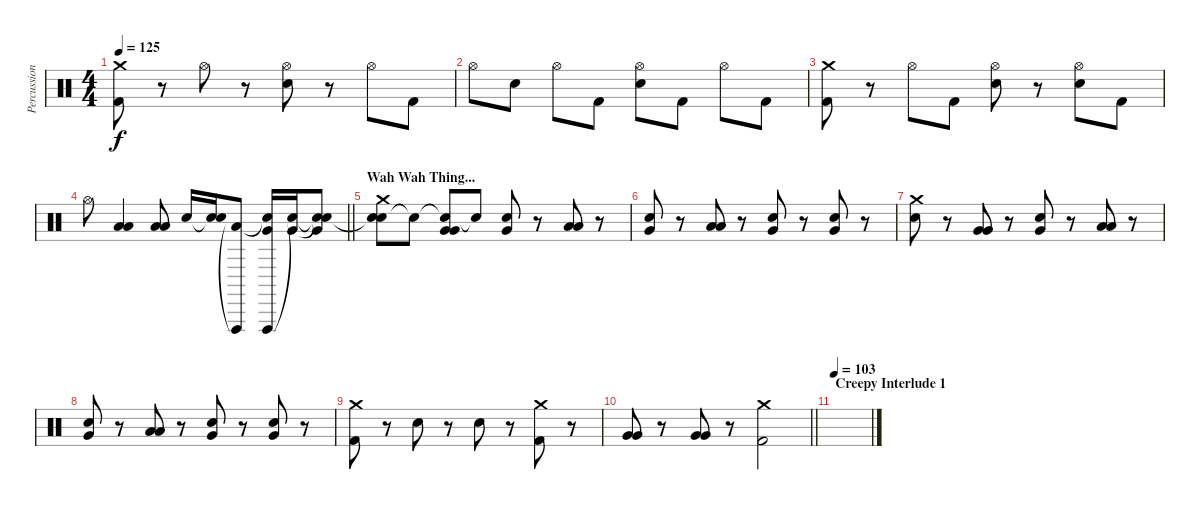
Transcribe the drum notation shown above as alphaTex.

\track ("Percussion" "Percussion") {instrument percussion}
\staff {score}
\articulation defaults
\ts (4 4)
\tempo 125
\clef neutral
\ks c
("Crash medium (hit)" "Kick (hit) 2").8{dy f} r.8 "Hi-Hat (open)".8 r.8 ("Hi-Hat (open)" "Electric Snare (hit)").8 r.8 "Hi-Hat (open)".8 "Kick (hit) 2".8 |
"Hi-Hat (open)".8 "Electric Snare (hit)".8 "Hi-Hat (open)".8 "Kick (hit) 2".8 ("Hi-Hat (open)" "Electric Snare (hit)").8 "Kick (hit) 2".8 "Hi-Hat (open)".8 "Kick (hit) 2".8 |
("Crash medium (hit)" "Kick (hit) 2").8 r.8 "Hi-Hat (open)".8 "Kick (hit) 2".8 ("Hi-Hat (open)" "Electric Snare (hit)").8 r.8 ("Hi-Hat (open)" "Electric Snare (hit)").8 "Kick (hit) 2".8 |
\barLineRight lightlight "Hi-Hat (open)".8
("Low Tom (hit)" "Low Tom (hit)").4 ("Low Tom (hit)" "Low Tom (hit)").8 "Electric Snare (hit)".16 ("Snare (hit)"{t} "Electric Snare (hit)").16 ("Vibraslap (hit)"{t} "Low Tom (hit)").8 ("Vibraslap (hit)" "Snare (hit)"{t} "Very Low Tom (hit)").16 ("Snare (hit)"{t} "Very Low Tom (hit)").16 ("Snare (hit)"{t} "Snare (hit)"{t} "Very Low Tom (hit)").8 |
\section ("" "Wah Wah Thing...")
("Snare (hit)"{t} "Crash medium (hit)" "Electric Snare (hit)").8 "Snare (hit)"{t}.8 ("Snare (hit)"{t} "Very Low Tom (hit)" "Very Low Tom (hit)").8 "Snare (hit)"{t}.8 ("Very Low Tom (hit)" "Electric Snare (hit)").8 r.8 ("Low Tom (hit)" "Low Tom (hit)").8 r.8 |
("Very Low Tom (hit)" "Electric Snare (hit)").8 r.8 ("Low Tom (hit)" "Low Tom (hit)").8 r.8 ("Very Low Tom (hit)" "Electric Snare (hit)").8 r.8 ("Very Low Tom (hit)" "Electric Snare (hit)").8 r.8 |
("Crash medium (hit)" "Electric Snare (hit)").8 r.8 ("Very Low Tom (hit)" "Very Low Tom (hit)").8 r.8 ("Very Low Tom (hit)" "Electric Snare (hit)").8 r.8 ("Low Tom (hit)" "Low Tom (hit)").8 r.8 |
("Very Low Tom (hit)" "Electric Snare (hit)").8 r.8 ("Low Tom (hit)" "Low Tom (hit)").8 r.8 ("Very Low Tom (hit)" "Electric Snare (hit)").8 r.8 ("Very Low Tom (hit)" "Electric Snare (hit)").8 r.8 |
("Crash medium (hit)" "Kick (hit) 2").8 r.8 "Electric Snare (hit)".8 r.8 "Electric Snare (hit)".8 r.8 ("Crash medium (hit)" "Kick (hit) 2").8 r.8 |
\barLineRight lightlight
("Very Low Tom (hit)" "Very Low Tom (hit)").8 r.8 ("Very Low Tom (hit)" "Very Low Tom (hit)").8 r.8 ("Crash medium (hit)" "Kick (hit) 2").2 |
\section ("" "Creepy Interlude 1")
\tempo 103
